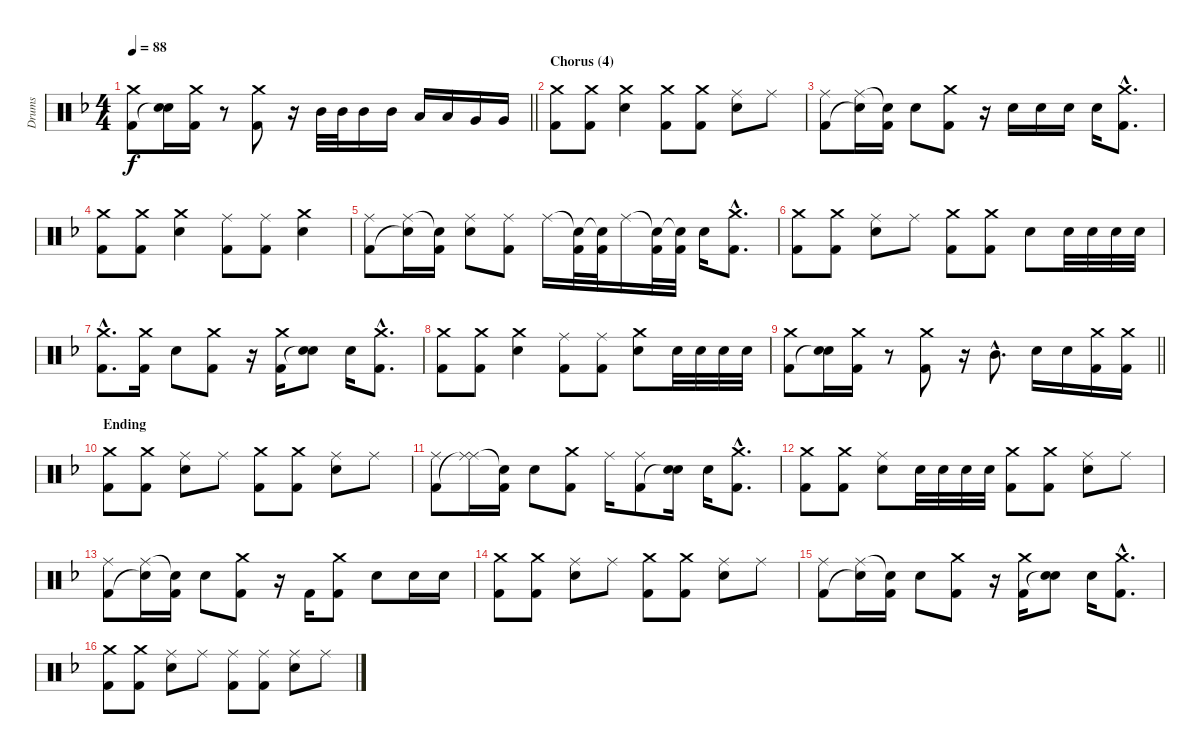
\track ("Drums" "Drums") {instrument percussion}
\staff {score}
\articulation defaults
\ts (4 4)
\tempo 88
\clef neutral
\barLineRight lightlight
\ks dminor
("Crash medium (hit)" "Kick (hit) 2").8{dy f} ("Electric Snare (hit)" "Snare (hit)"{t}).16 ("Crash medium (hit)" "Kick (hit) 2").16 r.8 ("Crash medium (hit)" "Kick (hit) 2").8 r.16 "Mid Tom (hit)".32 "Mid Tom (hit)".32 "Mid Tom (hit)".16 "Mid Tom (hit)".16 "Low Tom (hit)".16 "Low Tom (hit)".16 "Very Low Tom (hit)".16 "Very Low Tom (hit)".16 |
\section ("" "Chorus (4)")
("Crash medium (hit)" "Kick (hit) 2").8 ("Crash medium (hit)" "Kick (hit) 2").8 ("Crash medium (hit)" "Electric Snare (hit)").4 ("Crash medium (hit)" "Kick (hit) 2").8 ("Crash medium (hit)" "Kick (hit) 2").8 ("Ride (middle)" "Electric Snare (hit)").8 "Ride (middle)".8 |
("Ride (middle)" "Kick (hit) 2").8 ("Ride (middle)" "Snare (hit)"{t}).16 ("Snare (hit)"{t} "Kick (hit) 2").16 "Electric Snare (hit)".8 ("Crash medium (hit)" "Kick (hit) 2").8 r.16 "Electric Snare (hit)".16 "Electric Snare (hit)".16 "Electric Snare (hit)".16 "Electric Snare (hit)".16 ("Crash medium (hit)"{hac} "Kick (hit) 2"{hac}).8{d} |
("Crash medium (hit)" "Kick (hit) 2").8 ("Crash medium (hit)" "Kick (hit) 2").8 ("Crash medium (hit)" "Electric Snare (hit)").4 ("Ride (middle)" "Kick (hit) 2").8 ("Ride (middle)" "Kick (hit) 2").8 ("Crash medium (hit)" "Electric Snare (hit)").4 |
("Ride (middle)" "Kick (hit) 2").8 ("Ride (middle)" "Snare (hit)"{t}).16 ("Snare (hit)"{t} "Kick (hit) 2").16 ("Ride (middle)" "Electric Snare (hit)").8 ("Ride (middle)" "Kick (hit) 2").8 "Ride (middle)".16 ("Snare (hit)"{t} "Kick (hit) 2").32 ("Snare (hit)"{t} "Kick (hit) 2").32 "Ride (middle)".16 ("Snare (hit)"{t} "Kick (hit) 2").32 ("Snare (hit)"{t} "Kick (hit) 2").32 "Electric Snare (hit)".16 ("Crash medium (hit)"{hac} "Kick (hit) 2"{hac}).8{d} |
("Crash medium (hit)" "Kick (hit) 2").8 ("Crash medium (hit)" "Kick (hit) 2").8 ("Ride (middle)" "Electric Snare (hit)").8 "Ride (middle)".8 ("Crash medium (hit)" "Kick (hit) 2").8 ("Crash medium (hit)" "Kick (hit) 2").8 "Electric Snare (hit)".8 "Electric Snare (hit)".32 "Electric Snare (hit)".32 "Electric Snare (hit)".32 "Electric Snare (hit)".32 |
("Crash medium (hit)"{hac} "Kick (hit) 2"{hac}).8{d} ("Crash medium (hit)" "Kick (hit) 2").16 "Electric Snare (hit)".8 ("Crash medium (hit)" "Kick (hit) 2").8 r.16 ("Crash medium (hit)" "Kick (hit) 2").16 ("Electric Snare (hit)" "Snare (hit)"{t}).8 "Electric Snare (hit)".16 ("Crash medium (hit)"{hac} "Kick (hit) 2"{hac}).8{d} |
("Crash medium (hit)" "Kick (hit) 2").8 ("Crash medium (hit)" "Kick (hit) 2").8 ("Crash medium (hit)" "Electric Snare (hit)").4 ("Ride (middle)" "Kick (hit) 2").8 ("Ride (middle)" "Kick (hit) 2").8 ("Crash medium (hit)" "Electric Snare (hit)").8 "Electric Snare (hit)".32 "Electric Snare (hit)".32 "Electric Snare (hit)".32 "Electric Snare (hit)".32 |
\barLineRight lightlight
("Crash medium (hit)" "Kick (hit) 2").8 ("Electric Snare (hit)" "Snare (hit)"{t}).16 ("Crash medium (hit)" "Kick (hit) 2").16 r.8 ("Crash medium (hit)" "Kick (hit) 2").8 r.16 "Mid Tom (hit)"{hac}.8{d} "Electric Snare (hit)".16 "Electric Snare (hit)".16 ("Crash medium (hit)" "Kick (hit) 2").16 ("Crash medium (hit)" "Kick (hit) 2").16 |
\section ("" "Ending")
("Crash medium (hit)" "Kick (hit) 2").8 ("Crash medium (hit)" "Kick (hit) 2").8 ("Ride (middle)" "Electric Snare (hit)").8 "Ride (middle)".8 ("Crash medium (hit)" "Kick (hit) 2").8 ("Crash medium (hit)" "Kick (hit) 2").8 ("Ride (middle)" "Electric Snare (hit)").8 "Ride (middle)".8 |
("Ride (middle)" "Kick (hit) 2").8 ("Ride (middle)" "Ride (middle)"{t}).16 ("Snare (hit)"{t} "Kick (hit) 2").16 "Electric Snare (hit)".8 ("Crash medium (hit)" "Kick (hit) 2").8 "Ride (middle)".16 ("Ride (middle)" "Kick (hit) 2").8 ("Electric Snare (hit)" "Snare (hit)"{t}).16 "Electric Snare (hit)".16 ("Crash medium (hit)"{hac} "Kick (hit) 2"{hac}).8{d} |
("Crash medium (hit)" "Kick (hit) 2").8 ("Crash medium (hit)" "Kick (hit) 2").8 ("Ride (middle)" "Electric Snare (hit)").8 "Electric Snare (hit)".32 "Electric Snare (hit)".32 "Electric Snare (hit)".32 "Electric Snare (hit)".32 ("Crash medium (hit)" "Kick (hit) 2").8 ("Crash medium (hit)" "Kick (hit) 2").8 ("Ride (middle)" "Electric Snare (hit)").8 "Ride (middle)".8 |
("Ride (middle)" "Kick (hit) 2").8 ("Ride (middle)" "Snare (hit)"{t}).16 ("Snare (hit)"{t} "Kick (hit) 2").16 "Electric Snare (hit)".8 ("Crash medium (hit)" "Kick (hit) 2").8 r.16 "Kick (hit) 2".16 ("Crash medium (hit)" "Kick (hit) 2").8 "Electric Snare (hit)".8 "Electric Snare (hit)".16 "Electric Snare (hit)".16 |
("Crash medium (hit)" "Kick (hit) 2").8 ("Crash medium (hit)" "Kick (hit) 2").8 ("Ride (middle)" "Electric Snare (hit)").8 "Ride (middle)".8 ("Crash medium (hit)" "Kick (hit) 2").8 ("Crash medium (hit)" "Kick (hit) 2").8 ("Ride (middle)" "Electric Snare (hit)").8 "Ride (middle)".8 |
("Ride (middle)" "Kick (hit) 2").8 ("Ride (middle)" "Snare (hit)"{t}).16 ("Snare (hit)"{t} "Kick (hit) 2").16 "Electric Snare (hit)".8 ("Crash medium (hit)" "Kick (hit) 2").8 r.16 ("Crash medium (hit)" "Kick (hit) 2").16 ("Electric Snare (hit)" "Snare (hit)"{t}).8 "Electric Snare (hit)".16 ("Crash medium (hit)"{hac} "Kick (hit) 2"{hac}).8{d} |
("Crash medium (hit)" "Kick (hit) 2").8 ("Crash medium (hit)" "Kick (hit) 2").8 ("Ride (middle)" "Electric Snare (hit)").8 "Ride (middle)".8 ("Ride (middle)" "Kick (hit) 2").8 ("Ride (middle)" "Kick (hit) 2").8 ("Ride (middle)" "Electric Snare (hit)").8 "Ride (middle)".8
